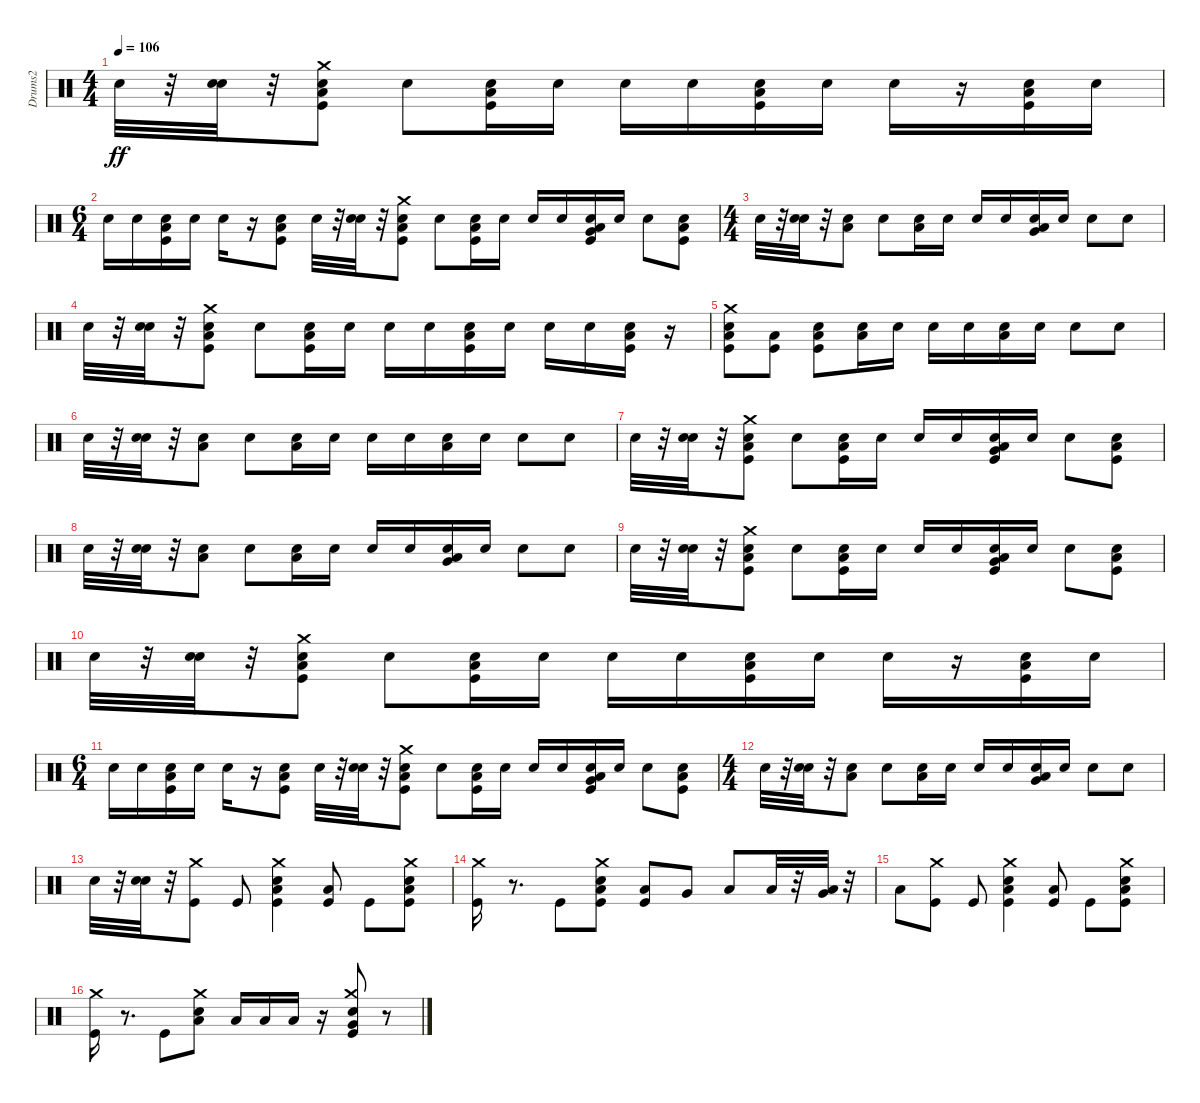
\track ("Drums2" "Drums2") {instrument percussion}
\staff {score}
\articulation defaults
\ts (4 4)
\tempo 106
\clef neutral
\ks c "Snare (hit) 2".32{dy ff}
r.32 ("Snare (hit) 2" "Snare (hit) 2").32 r.32 ("Kick (hit)" "Snare (hit) 2" "Low Floor Tom (hit)" "Crash medium (hit)").8 "Snare (hit) 2".8 ("Kick (hit)" "Snare (hit) 2" "Low Floor Tom (hit)").16 "Snare (hit) 2".16 "Snare (hit) 2".16 "Snare (hit) 2".16 ("Kick (hit)" "Snare (hit) 2" "Low Floor Tom (hit)").16 "Snare (hit) 2".16 "Snare (hit) 2".16 r.16 ("Kick (hit)" "Snare (hit) 2" "Low Floor Tom (hit)").16 "Snare (hit) 2".16 |
\ts (6 4)
"Snare (hit) 2".16 "Snare (hit) 2".16 ("Kick (hit)" "Snare (hit) 2" "Low Floor Tom (hit)").16 "Snare (hit) 2".16 "Snare (hit) 2".16 r.16 ("Kick (hit)" "Snare (hit) 2" "Low Floor Tom (hit)").8 "Snare (hit) 2".32 r.32 ("Snare (hit) 2" "Snare (hit) 2").32 r.32 ("Kick (hit)" "Snare (hit) 2" "Low Floor Tom (hit)" "Crash medium (hit)").8 "Snare (hit) 2".8 ("Kick (hit)" "Snare (hit) 2" "Low Floor Tom (hit)").16 "Snare (hit) 2".16 "Snare (hit) 2".16 "Snare (hit) 2".16 ("Kick (hit)" "Snare (hit) 2" "Low Floor Tom (hit)" "Very Low Tom (hit)").16 "Snare (hit) 2".16 "Snare (hit) 2".8 ("Kick (hit)" "Snare (hit) 2" "Low Floor Tom (hit)").8 |
\ts (4 4)
"Snare (hit) 2".32 r.32 ("Snare (hit) 2" "Snare (hit) 2").32 r.32 ("Snare (hit) 2" "Low Floor Tom (hit)").8 "Snare (hit) 2".8 ("Snare (hit) 2" "Low Floor Tom (hit)").16 "Snare (hit) 2".16 "Snare (hit) 2".16 "Snare (hit) 2".16 ("Snare (hit) 2" "Low Floor Tom (hit)" "Very Low Tom (hit)").16 "Snare (hit) 2".16 "Snare (hit) 2".8 "Snare (hit) 2".8 |
"Snare (hit) 2".32 r.32 ("Snare (hit) 2" "Snare (hit) 2").32 r.32 ("Kick (hit)" "Snare (hit) 2" "Low Floor Tom (hit)" "Crash medium (hit)").8 "Snare (hit) 2".8 ("Kick (hit)" "Snare (hit) 2" "Low Floor Tom (hit)").16 "Snare (hit) 2".16 "Snare (hit) 2".16 "Snare (hit) 2".16 ("Kick (hit)" "Snare (hit) 2" "Low Floor Tom (hit)").16 "Snare (hit) 2".16 "Snare (hit) 2".16 "Snare (hit) 2".16 ("Kick (hit)" "Snare (hit) 2" "Low Floor Tom (hit)").16 r.16 |
("Kick (hit)" "Snare (hit) 2" "Low Floor Tom (hit)" "Crash medium (hit)").8 ("Kick (hit)" "Low Floor Tom (hit)").8 ("Kick (hit)" "Snare (hit) 2" "Low Floor Tom (hit)").8 ("Snare (hit) 2" "Low Floor Tom (hit)").16 "Snare (hit) 2".16 "Snare (hit) 2".16 "Snare (hit) 2".16 ("Snare (hit) 2" "Low Floor Tom (hit)").16 "Snare (hit) 2".16 "Snare (hit) 2".8 "Snare (hit) 2".8 |
"Snare (hit) 2".32 r.32 ("Snare (hit) 2" "Snare (hit) 2").32 r.32 ("Snare (hit) 2" "Low Floor Tom (hit)").8 "Snare (hit) 2".8 ("Snare (hit) 2" "Low Floor Tom (hit)").16 "Snare (hit) 2".16 "Snare (hit) 2".16 "Snare (hit) 2".16 ("Snare (hit) 2" "Low Floor Tom (hit)").16 "Snare (hit) 2".16 "Snare (hit) 2".8 "Snare (hit) 2".8 |
"Snare (hit) 2".32 r.32 ("Snare (hit) 2" "Snare (hit) 2").32 r.32 ("Kick (hit)" "Snare (hit) 2" "Low Floor Tom (hit)" "Crash medium (hit)").8 "Snare (hit) 2".8 ("Kick (hit)" "Snare (hit) 2" "Low Floor Tom (hit)").16 "Snare (hit) 2".16 "Snare (hit) 2".16 "Snare (hit) 2".16 ("Kick (hit)" "Snare (hit) 2" "Low Floor Tom (hit)" "Very Low Tom (hit)").16 "Snare (hit) 2".16 "Snare (hit) 2".8 ("Kick (hit)" "Snare (hit) 2" "Low Floor Tom (hit)").8 |
"Snare (hit) 2".32 r.32 ("Snare (hit) 2" "Snare (hit) 2").32 r.32 ("Snare (hit) 2" "Low Floor Tom (hit)").8 "Snare (hit) 2".8 ("Snare (hit) 2" "Low Floor Tom (hit)").16 "Snare (hit) 2".16 "Snare (hit) 2".16 "Snare (hit) 2".16 ("Snare (hit) 2" "Low Floor Tom (hit)" "Very Low Tom (hit)").16 "Snare (hit) 2".16 "Snare (hit) 2".8 "Snare (hit) 2".8 |
"Snare (hit) 2".32 r.32 ("Snare (hit) 2" "Snare (hit) 2").32 r.32 ("Kick (hit)" "Snare (hit) 2" "Low Floor Tom (hit)" "Crash medium (hit)").8 "Snare (hit) 2".8 ("Kick (hit)" "Snare (hit) 2" "Low Floor Tom (hit)").16 "Snare (hit) 2".16 "Snare (hit) 2".16 "Snare (hit) 2".16 ("Kick (hit)" "Snare (hit) 2" "Low Floor Tom (hit)" "Very Low Tom (hit)").16 "Snare (hit) 2".16 "Snare (hit) 2".8 ("Kick (hit)" "Snare (hit) 2" "Low Floor Tom (hit)").8 |
"Snare (hit) 2".32 r.32 ("Snare (hit) 2" "Snare (hit) 2").32 r.32 ("Kick (hit)" "Snare (hit) 2" "Low Floor Tom (hit)" "Crash medium (hit)").8 "Snare (hit) 2".8 ("Kick (hit)" "Snare (hit) 2" "Low Floor Tom (hit)").16 "Snare (hit) 2".16 "Snare (hit) 2".16 "Snare (hit) 2".16 ("Kick (hit)" "Snare (hit) 2" "Low Floor Tom (hit)").16 "Snare (hit) 2".16 "Snare (hit) 2".16 r.16 ("Kick (hit)" "Snare (hit) 2" "Low Floor Tom (hit)").16 "Snare (hit) 2".16 |
\ts (6 4)
"Snare (hit) 2".16 "Snare (hit) 2".16 ("Kick (hit)" "Snare (hit) 2" "Low Floor Tom (hit)").16 "Snare (hit) 2".16 "Snare (hit) 2".16 r.16 ("Kick (hit)" "Snare (hit) 2" "Low Floor Tom (hit)").8 "Snare (hit) 2".32 r.32 ("Snare (hit) 2" "Snare (hit) 2").32 r.32 ("Kick (hit)" "Snare (hit) 2" "Low Floor Tom (hit)" "Crash medium (hit)").8 "Snare (hit) 2".8 ("Kick (hit)" "Snare (hit) 2" "Low Floor Tom (hit)").16 "Snare (hit) 2".16 "Snare (hit) 2".16 "Snare (hit) 2".16 ("Kick (hit)" "Snare (hit) 2" "Low Floor Tom (hit)" "Very Low Tom (hit)").16 "Snare (hit) 2".16 "Snare (hit) 2".8 ("Kick (hit)" "Snare (hit) 2" "Low Floor Tom (hit)").8 |
\ts (4 4)
"Snare (hit) 2".32 r.32 ("Snare (hit) 2" "Snare (hit) 2").32 r.32 ("Snare (hit) 2" "Low Floor Tom (hit)").8 "Snare (hit) 2".8 ("Snare (hit) 2" "Low Floor Tom (hit)").16 "Snare (hit) 2".16 "Snare (hit) 2".16 "Snare (hit) 2".16 ("Snare (hit) 2" "Low Floor Tom (hit)" "Very Low Tom (hit)").16 "Snare (hit) 2".16 "Snare (hit) 2".8 "Snare (hit) 2".8 |
"Snare (hit) 2".32 r.32 ("Snare (hit) 2" "Snare (hit) 2").32 r.32 ("Kick (hit)" "Crash medium (hit)").8 "Kick (hit)".8 ("Kick (hit)" "Snare (hit) 2" "Low Floor Tom (hit)" "Crash medium (hit)").4 ("Kick (hit)" "Low Floor Tom (hit)").8 "Kick (hit)".8 ("Kick (hit)" "Snare (hit) 2" "Low Floor Tom (hit)" "Crash medium (hit)").8 |
("Kick (hit)" "Crash medium (hit)").16 r.8{d} "Kick (hit)".8 ("Kick (hit)" "Snare (hit) 2" "Low Floor Tom (hit)" "Crash medium (hit)").8 ("Kick (hit)" "Low Floor Tom (hit)").8 "Very Low Tom (hit)".8 "Low Floor Tom (hit)".8 "Low Tom (hit)".32 r.32 ("Very Low Tom (hit)" "Low Floor Tom (hit)").32 r.32 |
"Low Floor Tom (hit)".8 ("Kick (hit)" "Crash medium (hit)").8 "Kick (hit)".8 ("Kick (hit)" "Snare (hit) 2" "Low Floor Tom (hit)" "Crash medium (hit)").4 ("Kick (hit)" "Low Floor Tom (hit)").8 "Kick (hit)".8 ("Kick (hit)" "Snare (hit) 2" "Low Floor Tom (hit)" "Crash medium (hit)").8 |
("Kick (hit)" "Crash medium (hit)").16 r.8{d} "Kick (hit)".8 ("Snare (hit) 2" "Low Floor Tom (hit)" "Crash medium (hit)").8 "Low Floor Tom (hit)".16 "Low Floor Tom (hit)".16 "Low Floor Tom (hit)".16 r.16 ("Kick (hit)" "Snare (hit) 2" "Very Low Tom (hit)" "Crash medium (hit)").8 r.8
